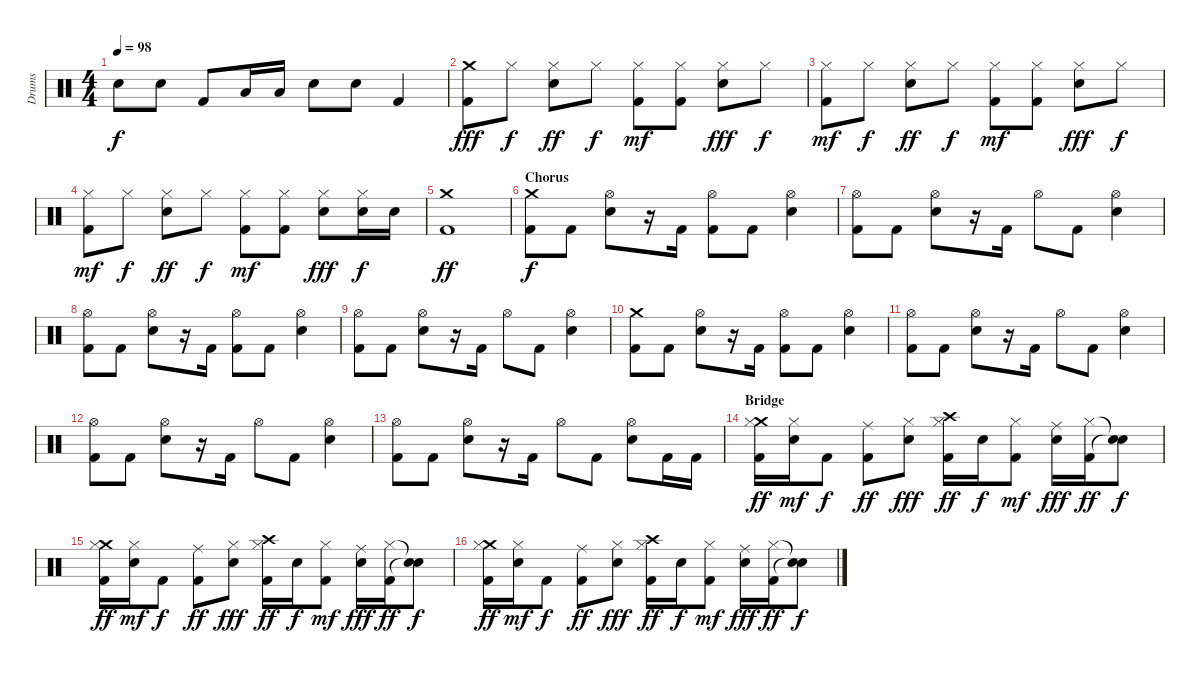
\track ("Drums" "Drums") {instrument percussion}
\staff {score}
\articulation defaults
\ts (4 4)
\tempo 98
\clef neutral
\ks c "Electric Snare (hit)".8{dy f} "Electric Snare (hit)".8 "Kick (hit) 2".8 "Low Floor Tom (hit)".16 "Low Floor Tom (hit)".16 "Electric Snare (hit)".8 "Electric Snare (hit)".8 "Kick (hit) 2".4
|
("Crash medium (hit)" "Kick (hit) 2").8{dy fff} "Hi-Hat (closed)".8{dy f} ("Hi-Hat (closed)" "Electric Snare (hit)").8{dy ff} "Hi-Hat (closed)".8{dy f} ("Hi-Hat (closed)" "Kick (hit) 2").8{dy mf} ("Hi-Hat (closed)" "Kick (hit) 2").8 ("Hi-Hat (closed)" "Electric Snare (hit)").8{dy fff} "Hi-Hat (closed)".8{dy f} |
("Hi-Hat (closed)" "Kick (hit) 2").8{dy mf} "Hi-Hat (closed)".8{dy f} ("Hi-Hat (closed)" "Electric Snare (hit)").8{dy ff} "Hi-Hat (closed)".8{dy f} ("Hi-Hat (closed)" "Kick (hit) 2").8{dy mf} ("Hi-Hat (closed)" "Kick (hit) 2").8 ("Hi-Hat (closed)" "Electric Snare (hit)").8{dy fff} "Hi-Hat (closed)".8{dy f} |
("Hi-Hat (closed)" "Kick (hit) 2").8{dy mf} "Hi-Hat (closed)".8{dy f} ("Hi-Hat (closed)" "Electric Snare (hit)").8{dy ff} "Hi-Hat (closed)".8{dy f} ("Hi-Hat (closed)" "Kick (hit) 2").8{dy mf} ("Hi-Hat (closed)" "Kick (hit) 2").8 ("Hi-Hat (closed)" "Electric Snare (hit)").8{dy fff} ("Hi-Hat (closed)" "Electric Snare (hit)").16{dy f} "Electric Snare (hit)".16 |
("Crash medium (hit)" "Kick (hit) 2").1{dy ff} |
\section ("" "Chorus")
("Crash medium (hit)" "Kick (hit) 2").8{dy f} "Kick (hit) 2".8 ("Hi-Hat (open)" "Electric Snare (hit)").8 r.16 "Kick (hit) 2".16 ("Hi-Hat (open)" "Kick (hit) 2").8 "Kick (hit) 2".8 ("Hi-Hat (open)" "Electric Snare (hit)").4 |
("Hi-Hat (open)" "Kick (hit) 2").8 "Kick (hit) 2".8 ("Hi-Hat (open)" "Electric Snare (hit)").8 r.16 "Kick (hit) 2".16 "Hi-Hat (open)".8 "Kick (hit) 2".8 ("Hi-Hat (open)" "Electric Snare (hit)").4 |
("Hi-Hat (open)" "Kick (hit) 2").8 "Kick (hit) 2".8 ("Hi-Hat (open)" "Electric Snare (hit)").8 r.16 "Kick (hit) 2".16 ("Hi-Hat (open)" "Kick (hit) 2").8 "Kick (hit) 2".8 ("Hi-Hat (open)" "Electric Snare (hit)").4 |
("Hi-Hat (open)" "Kick (hit) 2").8 "Kick (hit) 2".8 ("Hi-Hat (open)" "Electric Snare (hit)").8 r.16 "Kick (hit) 2".16 "Hi-Hat (open)".8 "Kick (hit) 2".8 ("Hi-Hat (open)" "Electric Snare (hit)").4 |
("Crash medium (hit)" "Kick (hit) 2").8 "Kick (hit) 2".8 ("Hi-Hat (open)" "Electric Snare (hit)").8 r.16 "Kick (hit) 2".16 ("Hi-Hat (open)" "Kick (hit) 2").8 "Kick (hit) 2".8 ("Hi-Hat (open)" "Electric Snare (hit)").4 |
("Hi-Hat (open)" "Kick (hit) 2").8 "Kick (hit) 2".8 ("Hi-Hat (open)" "Electric Snare (hit)").8 r.16 "Kick (hit) 2".16 "Hi-Hat (open)".8 "Kick (hit) 2".8 ("Hi-Hat (open)" "Electric Snare (hit)").4 |
("Hi-Hat (open)" "Kick (hit) 2").8 "Kick (hit) 2".8 ("Hi-Hat (open)" "Electric Snare (hit)").8 r.16 "Kick (hit) 2".16 "Hi-Hat (open)".8 "Kick (hit) 2".8 ("Hi-Hat (open)" "Electric Snare (hit)").4 |
("Hi-Hat (open)" "Kick (hit) 2").8 "Kick (hit) 2".8 ("Hi-Hat (open)" "Electric Snare (hit)").8 r.16 "Kick (hit) 2".16 "Hi-Hat (open)".8 "Kick (hit) 2".8 ("Hi-Hat (open)" "Electric Snare (hit)").8 "Kick (hit) 2".16 "Kick (hit) 2".16 |
\section ("" "Bridge")
("Crash medium (hit)" "Hi-Hat (closed)" "Kick (hit) 2").16{dy ff} ("Hi-Hat (closed)" "Electric Snare (hit)").16{dy mf} "Kick (hit) 2".8{dy f} ("Ride (middle)" "Kick (hit) 2").8{dy ff} ("Hi-Hat (closed)" "Electric Snare (hit)").8{dy fff} ("Crash high (hit)" "Hi-Hat (closed)" "Kick (hit) 2").16{dy ff} "Electric Snare (hit)".16{dy f} ("Hi-Hat (closed)" "Kick (hit) 2").8{dy mf} ("Ride (middle)" "Electric Snare (hit)").16{dy fff} ("Hi-Hat (closed)" "Kick (hit) 2").16{dy ff} ("Snare (hit)"{t} "Snare (hit)"{t}).8{dy f} |
("Crash medium (hit)" "Hi-Hat (closed)" "Kick (hit) 2").16{dy ff} ("Hi-Hat (closed)" "Electric Snare (hit)").16{dy mf} "Kick (hit) 2".8{dy f} ("Ride (middle)" "Kick (hit) 2").8{dy ff} ("Hi-Hat (closed)" "Electric Snare (hit)").8{dy fff} ("Crash high (hit)" "Hi-Hat (closed)" "Kick (hit) 2").16{dy ff} "Electric Snare (hit)".16{dy f} ("Hi-Hat (closed)" "Kick (hit) 2").8{dy mf} ("Ride (middle)" "Electric Snare (hit)").16{dy fff} ("Hi-Hat (closed)" "Kick (hit) 2").16{dy ff} ("Snare (hit)"{t} "Snare (hit)"{t}).8{dy f} |
("Crash medium (hit)" "Hi-Hat (closed)" "Kick (hit) 2").16{dy ff} ("Hi-Hat (closed)" "Electric Snare (hit)").16{dy mf} "Kick (hit) 2".8{dy f} ("Ride (middle)" "Kick (hit) 2").8{dy ff} ("Hi-Hat (closed)" "Electric Snare (hit)").8{dy fff} ("Crash high (hit)" "Hi-Hat (closed)" "Kick (hit) 2").16{dy ff} "Electric Snare (hit)".16{dy f} ("Hi-Hat (closed)" "Kick (hit) 2").8{dy mf} ("Ride (middle)" "Electric Snare (hit)").16{dy fff} ("Hi-Hat (closed)" "Kick (hit) 2").16{dy ff} ("Snare (hit)"{t} "Snare (hit)"{t}).8{dy f}
